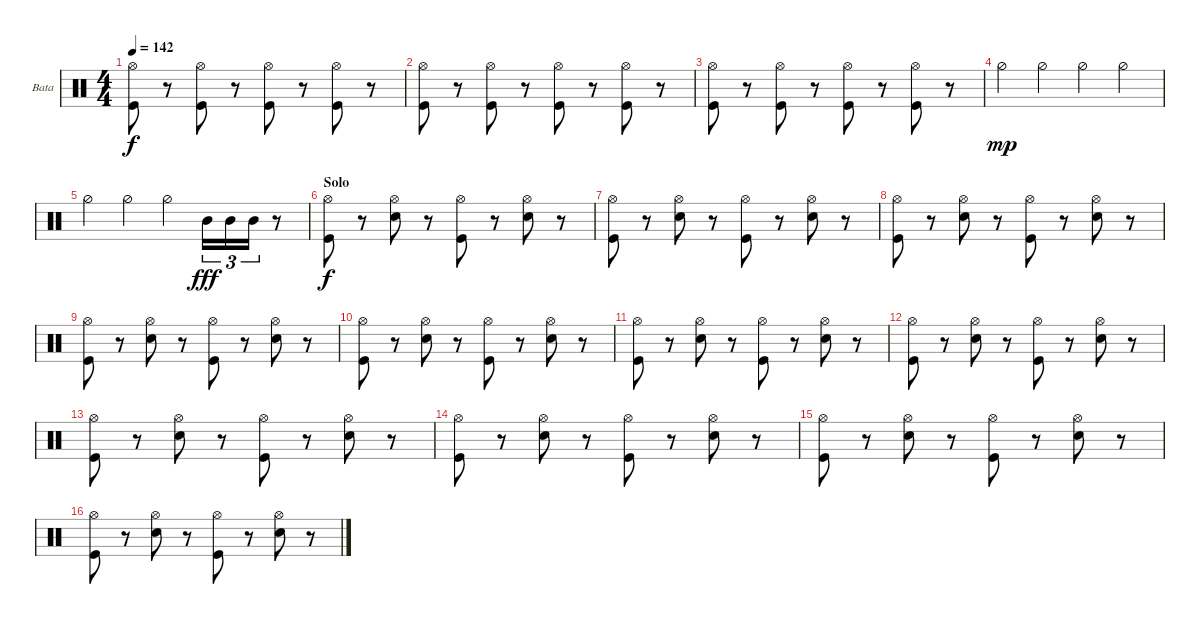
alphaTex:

\bracketExtendMode groupsimilarinstruments
\firstSystemTrackNameOrientation horizontal
\otherSystemsTrackNameOrientation horizontal
\track ("Bateria" "Bata") {instrument percussion}
\staff {score}
\articulation defaults
\ts (4 4)
\tempo 142
\clef neutral
\ks c
("Kick (hit)" "Hi-Hat (open)").8{dy f} r.8 ("Kick (hit)" "Hi-Hat (open)").8 r.8 ("Kick (hit)" "Hi-Hat (open)").8 r.8 ("Kick (hit)" "Hi-Hat (open)").8 r.8 |
("Kick (hit)" "Hi-Hat (open)").8 r.8 ("Kick (hit)" "Hi-Hat (open)").8 r.8 ("Kick (hit)" "Hi-Hat (open)").8 r.8 ("Kick (hit)" "Hi-Hat (open)").8 r.8 |
("Kick (hit)" "Hi-Hat (open)").8 r.8 ("Kick (hit)" "Hi-Hat (open)").8 r.8 ("Kick (hit)" "Hi-Hat (open)").8 r.8 ("Kick (hit)" "Hi-Hat (open)").8 r.8 |
"Hi-Hat (half)".4{dy mp} "Hi-Hat (half)".4 "Hi-Hat (half)".4 "Hi-Hat (half)".4 |
"Hi-Hat (half)".4 "Hi-Hat (half)".4 "Hi-Hat (half)".4 "Mid Tom (hit)".16{tu (3 2) dy fff} "Mid Tom (hit)".16{tu (3 2)} "Mid Tom (hit)".16{tu (3 2)} r.8 |
\section ("" "Solo")
("Kick (hit)" "Hi-Hat (open)").8{dy f} r.8 ("Hi-Hat (open)" "Snare (hit) 2").8 r.8 ("Hi-Hat (open)" "Kick (hit)").8 r.8 ("Hi-Hat (open)" "Snare (hit) 2").8 r.8 |
("Kick (hit)" "Hi-Hat (open)").8 r.8 ("Hi-Hat (open)" "Snare (hit) 2").8 r.8 ("Hi-Hat (open)" "Kick (hit)").8 r.8 ("Hi-Hat (open)" "Snare (hit) 2").8 r.8 |
("Kick (hit)" "Hi-Hat (open)").8 r.8 ("Hi-Hat (open)" "Snare (hit) 2").8 r.8 ("Hi-Hat (open)" "Kick (hit)").8 r.8 ("Hi-Hat (open)" "Snare (hit) 2").8 r.8 |
("Kick (hit)" "Hi-Hat (open)").8 r.8 ("Hi-Hat (open)" "Snare (hit) 2").8 r.8 ("Hi-Hat (open)" "Kick (hit)").8 r.8 ("Hi-Hat (open)" "Snare (hit) 2").8 r.8 |
("Kick (hit)" "Hi-Hat (open)").8 r.8 ("Hi-Hat (open)" "Snare (hit) 2").8 r.8 ("Hi-Hat (open)" "Kick (hit)").8 r.8 ("Hi-Hat (open)" "Snare (hit) 2").8 r.8 |
("Kick (hit)" "Hi-Hat (open)").8 r.8 ("Hi-Hat (open)" "Snare (hit) 2").8 r.8 ("Hi-Hat (open)" "Kick (hit)").8 r.8 ("Hi-Hat (open)" "Snare (hit) 2").8 r.8 |
("Kick (hit)" "Hi-Hat (open)").8 r.8 ("Hi-Hat (open)" "Snare (hit) 2").8 r.8 ("Hi-Hat (open)" "Kick (hit)").8 r.8 ("Hi-Hat (open)" "Snare (hit) 2").8 r.8 |
("Kick (hit)" "Hi-Hat (open)").8 r.8 ("Hi-Hat (open)" "Snare (hit) 2").8 r.8 ("Hi-Hat (open)" "Kick (hit)").8 r.8 ("Hi-Hat (open)" "Snare (hit) 2").8 r.8 |
("Kick (hit)" "Hi-Hat (open)").8 r.8 ("Hi-Hat (open)" "Snare (hit) 2").8 r.8 ("Hi-Hat (open)" "Kick (hit)").8 r.8 ("Hi-Hat (open)" "Snare (hit) 2").8 r.8 |
("Kick (hit)" "Hi-Hat (open)").8 r.8 ("Hi-Hat (open)" "Snare (hit) 2").8 r.8 ("Hi-Hat (open)" "Kick (hit)").8 r.8 ("Hi-Hat (open)" "Snare (hit) 2").8 r.8 |
("Kick (hit)" "Hi-Hat (open)").8 r.8 ("Hi-Hat (open)" "Snare (hit) 2").8 r.8 ("Hi-Hat (open)" "Kick (hit)").8 r.8 ("Hi-Hat (open)" "Snare (hit) 2").8 r.8
